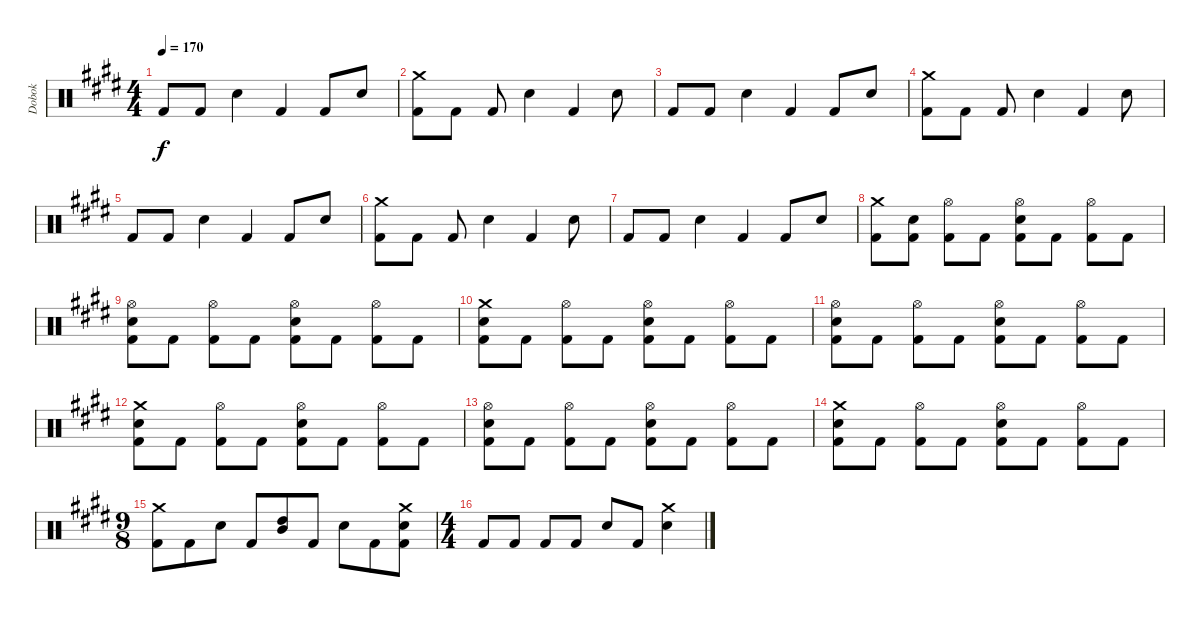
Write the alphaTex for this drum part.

\track ("Dobok" "Dobok") {instrument percussion}
\staff {score}
\articulation defaults
\ts (4 4)
\tempo 170
\clef neutral
\ks c#minor "Kick (hit) 2".8{dy f} "Kick (hit) 2".8 "Snare (hit) 2".4 "Kick (hit) 2".4 "Kick (hit) 2".8 "Snare (hit) 2".8
|
("Crash medium (hit)" "Kick (hit) 2").8 "Kick (hit) 2".8 "Kick (hit) 2".8 "Snare (hit) 2".4 "Kick (hit) 2".4 "Snare (hit) 2".8 |
"Kick (hit) 2".8 "Kick (hit) 2".8 "Snare (hit) 2".4 "Kick (hit) 2".4 "Kick (hit) 2".8 "Snare (hit) 2".8 |
("Crash medium (hit)" "Kick (hit) 2").8 "Kick (hit) 2".8 "Kick (hit) 2".8 "Snare (hit) 2".4 "Kick (hit) 2".4 "Snare (hit) 2".8 |
"Kick (hit) 2".8 "Kick (hit) 2".8 "Snare (hit) 2".4 "Kick (hit) 2".4 "Kick (hit) 2".8 "Snare (hit) 2".8 |
("Crash medium (hit)" "Kick (hit) 2").8 "Kick (hit) 2".8 "Kick (hit) 2".8 "Snare (hit) 2".4 "Kick (hit) 2".4 "Snare (hit) 2".8 |
"Kick (hit) 2".8 "Kick (hit) 2".8 "Snare (hit) 2".4 "Kick (hit) 2".4 "Kick (hit) 2".8 "Snare (hit) 2".8 |
("Crash medium (hit)" "Kick (hit) 2").8 ("Snare (hit) 2" "Kick (hit) 2").8 ("Hi-Hat (open)" "Kick (hit) 2").8 "Kick (hit) 2".8 ("Hi-Hat (open)" "Snare (hit) 2" "Kick (hit) 2").8 "Kick (hit) 2".8 ("Hi-Hat (open)" "Kick (hit) 2").8 "Kick (hit) 2".8 |
("Hi-Hat (open)" "Snare (hit) 2" "Kick (hit) 2").8 "Kick (hit) 2".8 ("Hi-Hat (open)" "Kick (hit) 2").8 "Kick (hit) 2".8 ("Hi-Hat (open)" "Snare (hit) 2" "Kick (hit) 2").8 "Kick (hit) 2".8 ("Hi-Hat (open)" "Kick (hit) 2").8 "Kick (hit) 2".8 |
("Crash medium (hit)" "Snare (hit) 2" "Kick (hit) 2").8 "Kick (hit) 2".8 ("Hi-Hat (open)" "Kick (hit) 2").8 "Kick (hit) 2".8 ("Hi-Hat (open)" "Snare (hit) 2" "Kick (hit) 2").8 "Kick (hit) 2".8 ("Hi-Hat (open)" "Kick (hit) 2").8 "Kick (hit) 2".8 |
("Hi-Hat (open)" "Snare (hit) 2" "Kick (hit) 2").8 "Kick (hit) 2".8 ("Hi-Hat (open)" "Kick (hit) 2").8 "Kick (hit) 2".8 ("Hi-Hat (open)" "Snare (hit) 2" "Kick (hit) 2").8 "Kick (hit) 2".8 ("Hi-Hat (open)" "Kick (hit) 2").8 "Kick (hit) 2".8 |
("Crash medium (hit)" "Snare (hit) 2" "Kick (hit) 2").8 "Kick (hit) 2".8 ("Hi-Hat (open)" "Kick (hit) 2").8 "Kick (hit) 2".8 ("Hi-Hat (open)" "Snare (hit) 2" "Kick (hit) 2").8 "Kick (hit) 2".8 ("Hi-Hat (open)" "Kick (hit) 2").8 "Kick (hit) 2".8 |
("Hi-Hat (open)" "Snare (hit) 2" "Kick (hit) 2").8 "Kick (hit) 2".8 ("Hi-Hat (open)" "Kick (hit) 2").8 "Kick (hit) 2".8 ("Hi-Hat (open)" "Snare (hit) 2" "Kick (hit) 2").8 "Kick (hit) 2".8 ("Hi-Hat (open)" "Kick (hit) 2").8 "Kick (hit) 2".8 |
("Crash medium (hit)" "Snare (hit) 2" "Kick (hit) 2").8 "Kick (hit) 2".8 ("Hi-Hat (open)" "Kick (hit) 2").8 "Kick (hit) 2".8 ("Hi-Hat (open)" "Snare (hit) 2" "Kick (hit) 2").8 "Kick (hit) 2".8 ("Hi-Hat (open)" "Kick (hit) 2").8 "Kick (hit) 2".8 |
\ts (9 8)
("Crash medium (hit)" "Kick (hit) 2").8 "Kick (hit) 2".8 "Snare (hit) 2".8 "Kick (hit) 2".8 ("High Tom (hit)" "Mid Tom (hit)").8 "Kick (hit) 2".8 "Snare (hit) 2".8 "Kick (hit) 2".8 ("Crash medium (hit)" "Snare (hit) 2" "Kick (hit) 2").8 |
\ts (4 4)
"Kick (hit) 2".8 "Kick (hit) 2".8 "Kick (hit) 2".8 "Kick (hit) 2".8 "Snare (hit) 2".8 "Kick (hit) 2".8 ("Crash medium (hit)" "Snare (hit) 2").4
